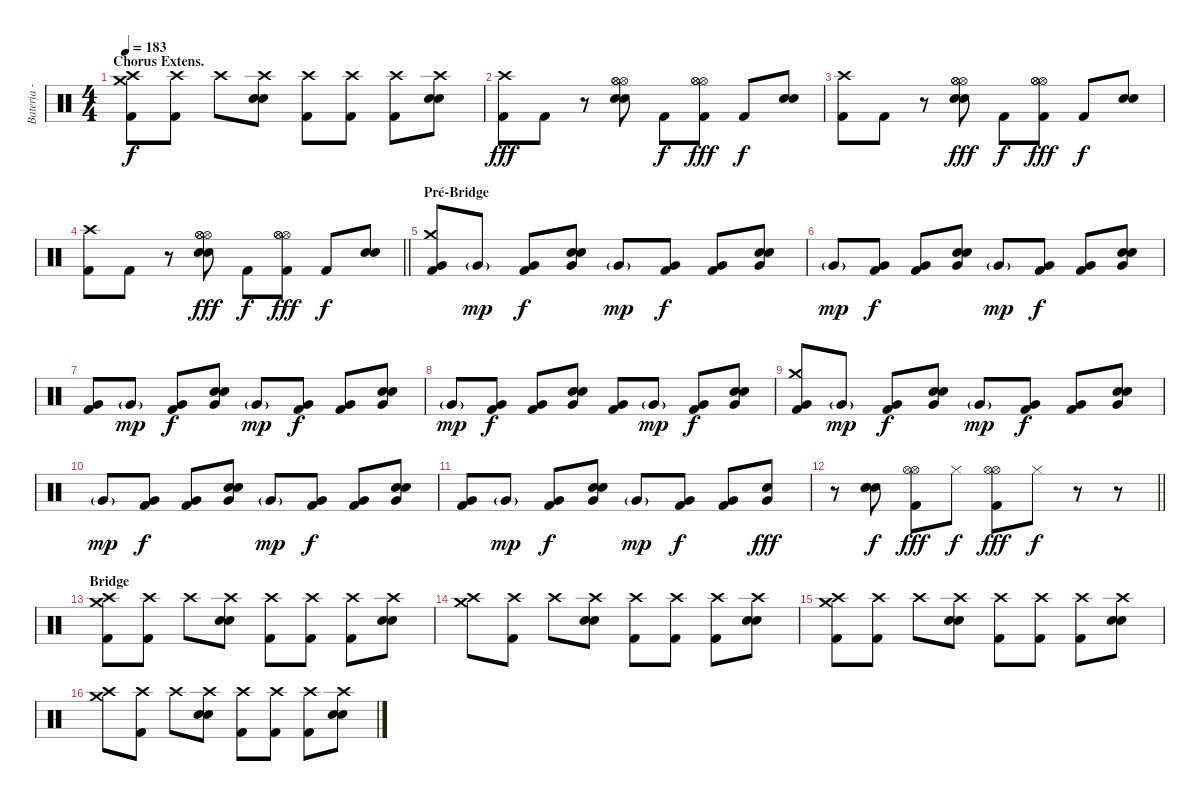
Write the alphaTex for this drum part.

\track ("Bateria - Larzon " "Bateria - ") {instrument percussion}
\staff {score}
\articulation defaults
\ts (4 4)
\section ("" "Chorus Extens.")
\tempo 183
\clef neutral
\ks c
("Kick (hit) 2" "Crash medium (hit)" "Crash high (hit)").8{dy f} ("Kick (hit) 2" "Crash high (hit)").8 "Crash high (hit)".8 ("Snare (hit) 2" "Snare (hit) 2" "Crash high (hit)").8 ("Kick (hit) 2" "Crash high (hit)").8 ("Kick (hit) 2" "Crash high (hit)").8 ("Kick (hit) 2" "Crash high (hit)").8 ("Snare (hit) 2" "Snare (hit) 2" "Crash high (hit)").8 |
("Kick (hit) 2" "Crash high (hit)").8{dy fff} "Kick (hit) 2".8 r.8 ("Snare (hit) 2" "Snare (hit) 2" "Hi-Hat (open)" "Hi-Hat (open)" "Hi-Hat (open)").8 "Kick (hit) 2".8{dy f} ("Kick (hit) 2" "Hi-Hat (open)" "Hi-Hat (open)" "Hi-Hat (open)").8{dy fff} "Kick (hit) 2".8{dy f} ("Snare (hit) 2" "Snare (hit) 2").8 |
("Kick (hit) 2" "Crash high (hit)").8 "Kick (hit) 2".8 r.8 ("Snare (hit) 2" "Snare (hit) 2" "Hi-Hat (open)" "Hi-Hat (open)" "Hi-Hat (open)").8{dy fff} "Kick (hit) 2".8{dy f} ("Kick (hit) 2" "Hi-Hat (open)" "Hi-Hat (open)" "Hi-Hat (open)").8{dy fff} "Kick (hit) 2".8{dy f} ("Snare (hit) 2" "Snare (hit) 2").8 |
\barLineRight lightlight
("Kick (hit) 2" "Crash high (hit)").8 "Kick (hit) 2".8 r.8 ("Snare (hit) 2" "Snare (hit) 2" "Hi-Hat (open)" "Hi-Hat (open)" "Hi-Hat (open)").8{dy fff} "Kick (hit) 2".8{dy f} ("Kick (hit) 2" "Hi-Hat (open)" "Hi-Hat (open)" "Hi-Hat (open)").8{dy fff} "Kick (hit) 2".8{dy f} ("Snare (hit) 2" "Snare (hit) 2").8 |
\section ("" "Pré-Bridge")
("Kick (hit) 2" "Crash medium (hit)" "Very Low Tom (hit)").8 "Very Low Tom (hit)"{g}.8{dy mp} ("Kick (hit) 2" "Very Low Tom (hit)").8{dy f} ("Snare (hit) 2" "Snare (hit) 2" "Very Low Tom (hit)").8 "Very Low Tom (hit)"{g}.8{dy mp} ("Kick (hit) 2" "Very Low Tom (hit)").8{dy f} ("Kick (hit) 2" "Very Low Tom (hit)").8 ("Snare (hit) 2" "Snare (hit) 2" "Very Low Tom (hit)").8 |
"Very Low Tom (hit)"{g}.8{dy mp} ("Kick (hit) 2" "Very Low Tom (hit)").8{dy f} ("Kick (hit) 2" "Very Low Tom (hit)").8 ("Snare (hit) 2" "Snare (hit) 2" "Very Low Tom (hit)").8 "Very Low Tom (hit)"{g}.8{dy mp} ("Kick (hit) 2" "Very Low Tom (hit)").8{dy f} ("Kick (hit) 2" "Very Low Tom (hit)").8 ("Snare (hit) 2" "Snare (hit) 2" "Very Low Tom (hit)").8 |
("Kick (hit) 2" "Very Low Tom (hit)").8 "Very Low Tom (hit)"{g}.8{dy mp} ("Kick (hit) 2" "Very Low Tom (hit)").8{dy f} ("Snare (hit) 2" "Snare (hit) 2" "Very Low Tom (hit)").8 "Very Low Tom (hit)"{g}.8{dy mp} ("Kick (hit) 2" "Very Low Tom (hit)").8{dy f} ("Kick (hit) 2" "Very Low Tom (hit)").8 ("Snare (hit) 2" "Snare (hit) 2" "Very Low Tom (hit)").8 |
"Very Low Tom (hit)"{g}.8{dy mp} ("Kick (hit) 2" "Very Low Tom (hit)").8{dy f} ("Kick (hit) 2" "Very Low Tom (hit)").8 ("Snare (hit) 2" "Snare (hit) 2" "Very Low Tom (hit)").8 ("Kick (hit) 2" "Very Low Tom (hit)").8 "Very Low Tom (hit)"{g}.8{dy mp} ("Kick (hit) 2" "Very Low Tom (hit)").8{dy f} ("Snare (hit) 2" "Snare (hit) 2" "Very Low Tom (hit)").8 |
("Kick (hit) 2" "Crash medium (hit)" "Very Low Tom (hit)").8 "Very Low Tom (hit)"{g}.8{dy mp} ("Kick (hit) 2" "Very Low Tom (hit)").8{dy f} ("Snare (hit) 2" "Snare (hit) 2" "Very Low Tom (hit)").8 "Very Low Tom (hit)"{g}.8{dy mp} ("Kick (hit) 2" "Very Low Tom (hit)").8{dy f} ("Kick (hit) 2" "Very Low Tom (hit)").8 ("Snare (hit) 2" "Snare (hit) 2" "Very Low Tom (hit)").8 |
"Very Low Tom (hit)"{g}.8{dy mp} ("Kick (hit) 2" "Very Low Tom (hit)").8{dy f} ("Kick (hit) 2" "Very Low Tom (hit)").8 ("Snare (hit) 2" "Snare (hit) 2" "Very Low Tom (hit)").8 "Very Low Tom (hit)"{g}.8{dy mp} ("Kick (hit) 2" "Very Low Tom (hit)").8{dy f} ("Kick (hit) 2" "Very Low Tom (hit)").8 ("Snare (hit) 2" "Snare (hit) 2" "Very Low Tom (hit)").8 |
("Kick (hit) 2" "Very Low Tom (hit)").8 "Very Low Tom (hit)"{g}.8{dy mp} ("Kick (hit) 2" "Very Low Tom (hit)").8{dy f} ("Snare (hit) 2" "Snare (hit) 2" "Very Low Tom (hit)").8 "Very Low Tom (hit)"{g}.8{dy mp} ("Kick (hit) 2" "Very Low Tom (hit)").8{dy f} ("Kick (hit) 2" "Very Low Tom (hit)").8 ("Snare (hit) 2" "Very Low Tom (hit)").8{dy fff} |
\barLineRight lightlight
r.8 ("Snare (hit) 2" "Snare (hit) 2" "Snare (hit) 2").8{dy f} ("Hi-Hat (open)" "Hi-Hat (open)" "Kick (hit) 2").8{dy fff} "Hi-Hat (closed)".8{dy f} ("Hi-Hat (open)" "Hi-Hat (open)" "Kick (hit) 2").8{dy fff} "Hi-Hat (closed)".8{dy f} r.8 r.8 |
\section ("" "Bridge")
("Kick (hit) 2" "Crash medium (hit)" "Crash high (hit)").8 ("Kick (hit) 2" "Crash high (hit)").8 "Crash high (hit)".8 ("Snare (hit) 2" "Snare (hit) 2" "Crash high (hit)").8 ("Kick (hit) 2" "Crash high (hit)").8 ("Kick (hit) 2" "Crash high (hit)").8 ("Kick (hit) 2" "Crash high (hit)").8 ("Snare (hit) 2" "Snare (hit) 2" "Crash high (hit)").8 |
("Crash medium (hit)" "Crash high (hit)").8 ("Kick (hit) 2" "Crash high (hit)").8 "Crash high (hit)".8 ("Snare (hit) 2" "Snare (hit) 2" "Crash high (hit)").8 ("Kick (hit) 2" "Crash high (hit)").8 ("Kick (hit) 2" "Crash high (hit)").8 ("Kick (hit) 2" "Crash high (hit)").8 ("Snare (hit) 2" "Snare (hit) 2" "Crash high (hit)").8 |
("Kick (hit) 2" "Crash medium (hit)" "Crash high (hit)").8 ("Kick (hit) 2" "Crash high (hit)").8 "Crash high (hit)".8 ("Snare (hit) 2" "Snare (hit) 2" "Crash high (hit)").8 ("Kick (hit) 2" "Crash high (hit)").8 ("Kick (hit) 2" "Crash high (hit)").8 ("Kick (hit) 2" "Crash high (hit)").8 ("Snare (hit) 2" "Snare (hit) 2" "Crash high (hit)").8 |
("Crash medium (hit)" "Crash high (hit)").8 ("Kick (hit) 2" "Crash high (hit)").8 "Crash high (hit)".8 ("Snare (hit) 2" "Snare (hit) 2" "Crash high (hit)").8 ("Kick (hit) 2" "Crash high (hit)").8 ("Kick (hit) 2" "Crash high (hit)").8 ("Kick (hit) 2" "Crash high (hit)").8 ("Snare (hit) 2" "Snare (hit) 2" "Crash high (hit)").8
